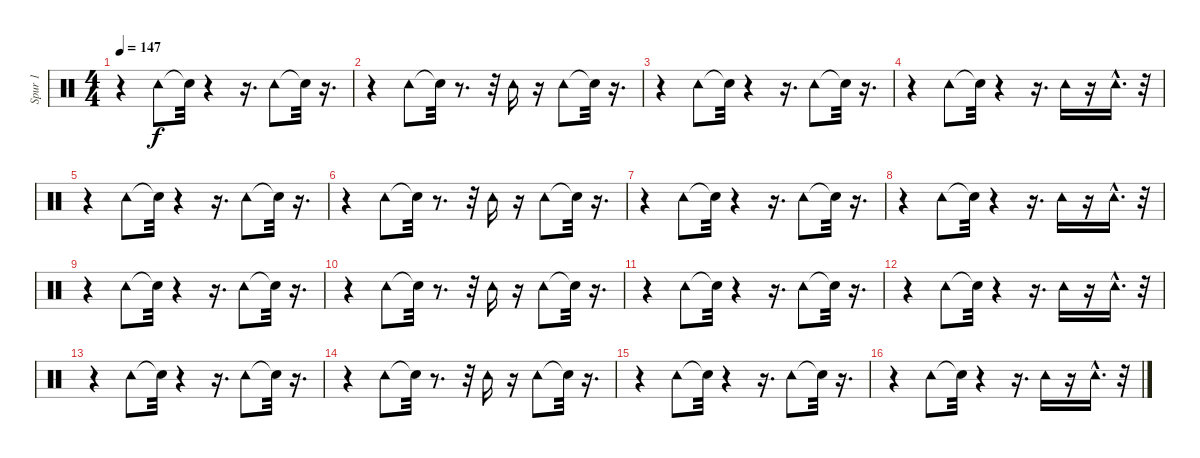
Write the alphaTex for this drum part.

\track ("Spur 1" "Spur 1") {instrument percussion}
\staff {score}
\articulation defaults
\ts (4 4)
\tempo 147
\clef neutral
\ks c
r.4{dy f} "Tambourine (hit)".8 "Snare (hit)"{t}.32 r.4 r.16{d} "Tambourine (hit)".8 "Snare (hit)"{t}.32 r.16{d} |
r.4 "Tambourine (hit)".8 "Snare (hit)"{t}.32 r.8{d} r.32 "Tambourine (hit)".16 r.16 "Tambourine (hit)".8 "Snare (hit)"{t}.32 r.16{d} |
r.4 "Tambourine (hit)".8 "Snare (hit)"{t}.32 r.4 r.16{d} "Tambourine (hit)".8 "Snare (hit)"{t}.32 r.16{d} |
r.4 "Tambourine (hit)".8 "Snare (hit)"{t}.32 r.4 r.16{d} "Tambourine (hit)".16 r.16 "Tambourine (hit)"{hac}.16{d} r.32 |
r.4 "Tambourine (hit)".8 "Snare (hit)"{t}.32 r.4 r.16{d} "Tambourine (hit)".8 "Snare (hit)"{t}.32 r.16{d} |
r.4 "Tambourine (hit)".8 "Snare (hit)"{t}.32 r.8{d} r.32 "Tambourine (hit)".16 r.16 "Tambourine (hit)".8 "Snare (hit)"{t}.32 r.16{d} |
r.4 "Tambourine (hit)".8 "Snare (hit)"{t}.32 r.4 r.16{d} "Tambourine (hit)".8 "Snare (hit)"{t}.32 r.16{d} |
r.4 "Tambourine (hit)".8 "Snare (hit)"{t}.32 r.4 r.16{d} "Tambourine (hit)".16 r.16 "Tambourine (hit)"{hac}.16{d} r.32 |
r.4 "Tambourine (hit)".8 "Snare (hit)"{t}.32 r.4 r.16{d} "Tambourine (hit)".8 "Snare (hit)"{t}.32 r.16{d} |
r.4 "Tambourine (hit)".8 "Snare (hit)"{t}.32 r.8{d} r.32 "Tambourine (hit)".16 r.16 "Tambourine (hit)".8 "Snare (hit)"{t}.32 r.16{d} |
r.4 "Tambourine (hit)".8 "Snare (hit)"{t}.32 r.4 r.16{d} "Tambourine (hit)".8 "Snare (hit)"{t}.32 r.16{d} |
r.4 "Tambourine (hit)".8 "Snare (hit)"{t}.32 r.4 r.16{d} "Tambourine (hit)".16 r.16 "Tambourine (hit)"{hac}.16{d} r.32 |
r.4 "Tambourine (hit)".8 "Snare (hit)"{t}.32 r.4 r.16{d} "Tambourine (hit)".8 "Snare (hit)"{t}.32 r.16{d} |
r.4 "Tambourine (hit)".8 "Snare (hit)"{t}.32 r.8{d} r.32 "Tambourine (hit)".16 r.16 "Tambourine (hit)".8 "Snare (hit)"{t}.32 r.16{d} |
r.4 "Tambourine (hit)".8 "Snare (hit)"{t}.32 r.4 r.16{d} "Tambourine (hit)".8 "Snare (hit)"{t}.32 r.16{d} |
r.4 "Tambourine (hit)".8 "Snare (hit)"{t}.32 r.4 r.16{d} "Tambourine (hit)".16 r.16 "Tambourine (hit)"{hac}.16{d} r.32
